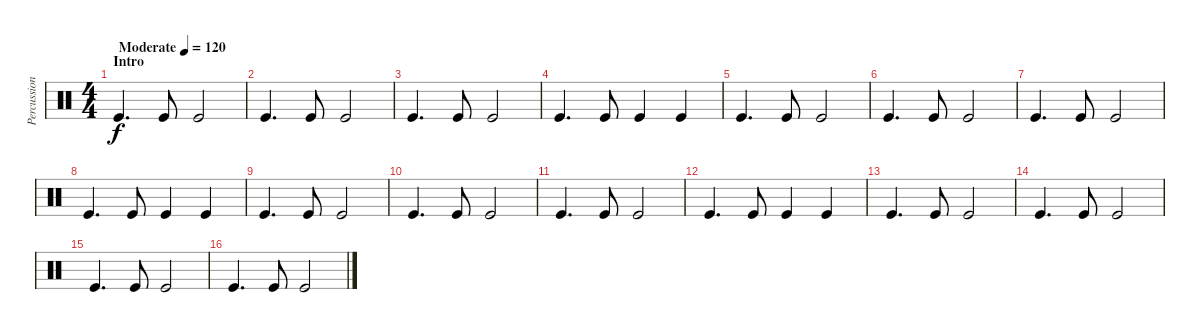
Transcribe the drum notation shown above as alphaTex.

\track ("Percussion" "Percussion") {instrument percussion}
\staff {score}
\articulation defaults
\ts (4 4)
\section ("" "Intro")
\tempo (120 "Moderate")
\clef neutral
\ks c "Kick (hit)".4{d dy f} "Kick (hit)".8 "Kick (hit)".2
|
"Kick (hit)".4{d} "Kick (hit)".8 "Kick (hit)".2 |
"Kick (hit)".4{d} "Kick (hit)".8 "Kick (hit)".2 |
"Kick (hit)".4{d} "Kick (hit)".8 "Kick (hit)".4 "Kick (hit)".4 |
"Kick (hit)".4{d} "Kick (hit)".8 "Kick (hit)".2 |
"Kick (hit)".4{d} "Kick (hit)".8 "Kick (hit)".2 |
"Kick (hit)".4{d} "Kick (hit)".8 "Kick (hit)".2 |
"Kick (hit)".4{d} "Kick (hit)".8 "Kick (hit)".4 "Kick (hit)".4 |
"Kick (hit)".4{d} "Kick (hit)".8 "Kick (hit)".2 |
"Kick (hit)".4{d} "Kick (hit)".8 "Kick (hit)".2 |
"Kick (hit)".4{d} "Kick (hit)".8 "Kick (hit)".2 |
"Kick (hit)".4{d} "Kick (hit)".8 "Kick (hit)".4 "Kick (hit)".4 |
"Kick (hit)".4{d} "Kick (hit)".8 "Kick (hit)".2 |
"Kick (hit)".4{d} "Kick (hit)".8 "Kick (hit)".2 |
"Kick (hit)".4{d} "Kick (hit)".8 "Kick (hit)".2 |
"Kick (hit)".4{d} "Kick (hit)".8 "Kick (hit)".2
